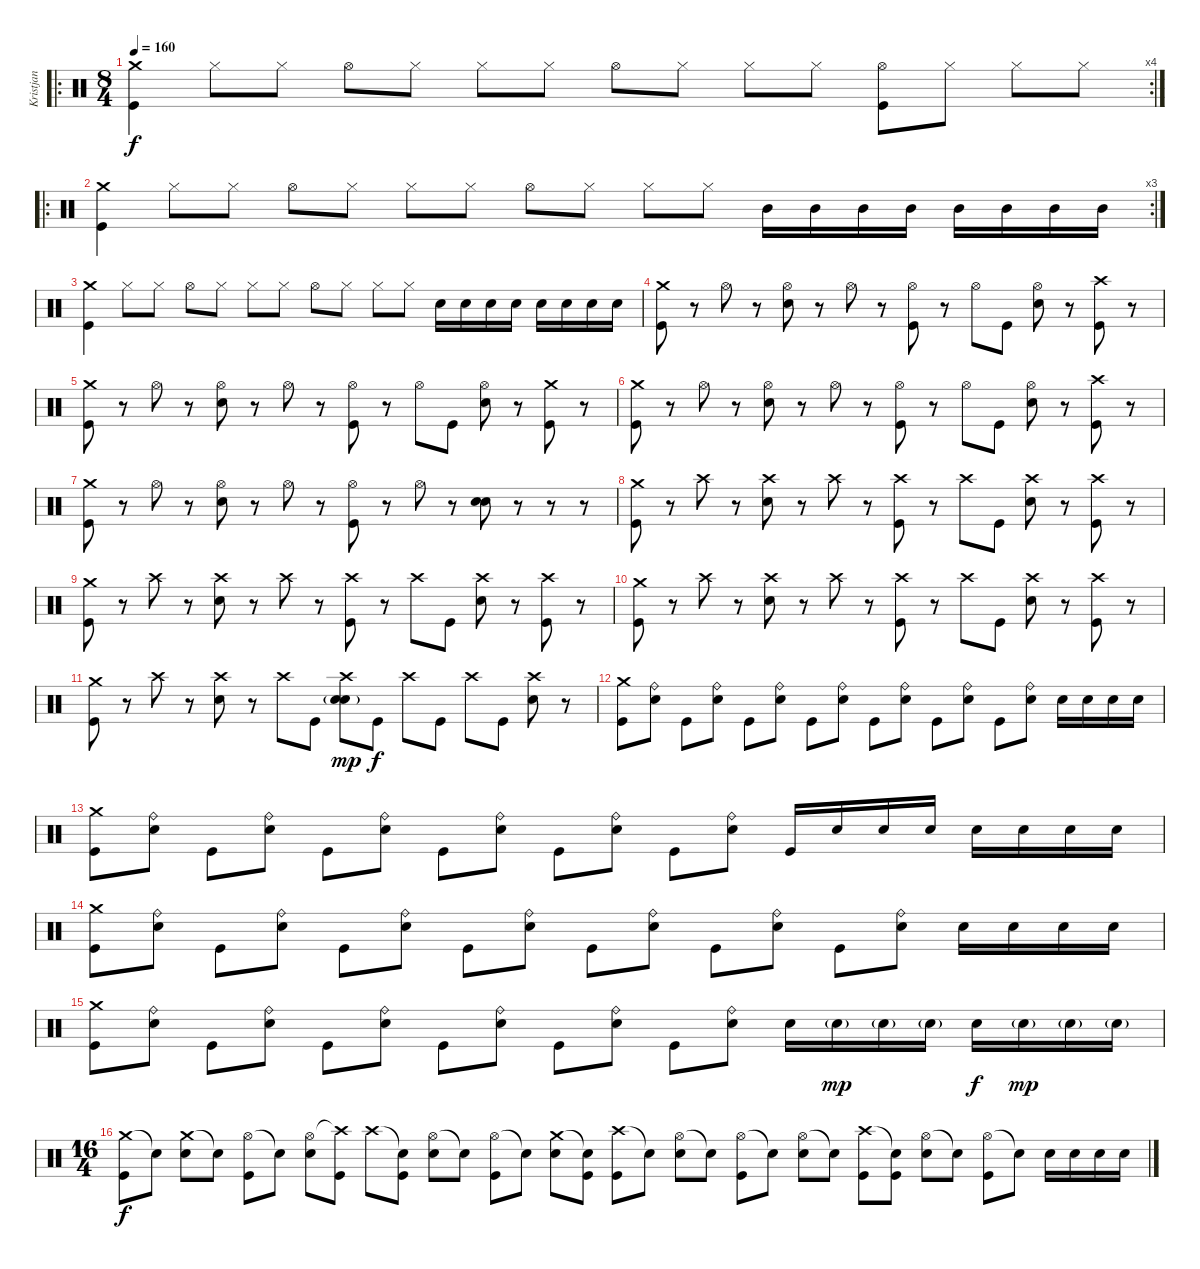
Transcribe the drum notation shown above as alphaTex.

\track ("Kristjan" "Kristjan") {instrument percussion}
\staff {score}
\articulation defaults
\ro
\rc 4
\ts (8 4)
\tempo 160
\clef neutral
\ks c
("Crash medium (hit)" "Kick (hit)").4{dy f} "Hi-Hat (closed)".8 "Hi-Hat (closed)".8 "Hi-Hat (open)".8 "Hi-Hat (closed)".8 "Hi-Hat (closed)".8 "Hi-Hat (closed)".8 "Hi-Hat (open)".8 "Hi-Hat (closed)".8 "Hi-Hat (closed)".8 "Hi-Hat (closed)".8 ("Hi-Hat (open)" "Kick (hit)").8 "Hi-Hat (closed)".8 "Hi-Hat (closed)".8 "Hi-Hat (closed)".8 |
\ro
\rc 3
("Crash medium (hit)" "Kick (hit)").4 "Hi-Hat (closed)".8 "Hi-Hat (closed)".8 "Hi-Hat (open)".8 "Hi-Hat (closed)".8 "Hi-Hat (closed)".8 "Hi-Hat (closed)".8 "Hi-Hat (open)".8 "Hi-Hat (closed)".8 "Hi-Hat (closed)".8 "Hi-Hat (closed)".8 "Mid Tom (hit)".16 "Mid Tom (hit)".16 "Mid Tom (hit)".16 "Mid Tom (hit)".16 "Mid Tom (hit)".16 "Mid Tom (hit)".16 "Mid Tom (hit)".16 "Mid Tom (hit)".16 |
("Crash medium (hit)" "Kick (hit)").4 "Hi-Hat (closed)".8 "Hi-Hat (closed)".8 "Hi-Hat (open)".8 "Hi-Hat (closed)".8 "Hi-Hat (closed)".8 "Hi-Hat (closed)".8 "Hi-Hat (open)".8 "Hi-Hat (closed)".8 "Hi-Hat (closed)".8 "Hi-Hat (closed)".8 "Electric Snare (hit)".16 "Electric Snare (hit)".16 "Electric Snare (hit)".16 "Electric Snare (hit)".16 "Electric Snare (hit)".16 "Electric Snare (hit)".16 "Electric Snare (hit)".16 "Electric Snare (hit)".16 |
("Crash medium (hit)" "Kick (hit)").8 r.8 "Hi-Hat (open)".8 r.8 ("Hi-Hat (open)" "Electric Snare (hit)").8 r.8 "Hi-Hat (open)".8 r.8 ("Hi-Hat (open)" "Kick (hit)").8 r.8 "Hi-Hat (open)".8 "Kick (hit)".8 ("Hi-Hat (open)" "Electric Snare (hit)").8 r.8 ("Crash high (hit)" "Kick (hit)").8 r.8 |
("Crash medium (hit)" "Kick (hit)").8 r.8 "Hi-Hat (open)".8 r.8 ("Hi-Hat (open)" "Electric Snare (hit)").8 r.8 "Hi-Hat (open)".8 r.8 ("Hi-Hat (open)" "Kick (hit)").8 r.8 "Hi-Hat (open)".8 "Kick (hit)".8 ("Hi-Hat (open)" "Electric Snare (hit)").8 r.8 ("Crash medium (hit)" "Kick (hit)").8 r.8 |
("Crash medium (hit)" "Kick (hit)").8 r.8 "Hi-Hat (open)".8 r.8 ("Hi-Hat (open)" "Electric Snare (hit)").8 r.8 "Hi-Hat (open)".8 r.8 ("Hi-Hat (open)" "Kick (hit)").8 r.8 "Hi-Hat (open)".8 "Kick (hit)".8 ("Hi-Hat (open)" "Electric Snare (hit)").8 r.8 ("Crash high (hit)" "Kick (hit)").8 r.8 |
("Crash medium (hit)" "Kick (hit)").8 r.8 "Hi-Hat (open)".8 r.8 ("Hi-Hat (open)" "Electric Snare (hit)").8 r.8 "Hi-Hat (open)".8 r.8 ("Hi-Hat (open)" "Kick (hit)").8 r.8 "Hi-Hat (open)".8 r.8 ("Electric Snare (hit)" "Electric Snare (hit)").8 r.8 r.8 r.8 |
("Crash medium (hit)" "Kick (hit)").8 r.8 "Crash high (hit)".8 r.8 ("Crash high (hit)" "Electric Snare (hit)").8 r.8 "Crash high (hit)".8 r.8 ("Crash high (hit)" "Kick (hit)").8 r.8 "Crash high (hit)".8 "Kick (hit)".8 ("Crash high (hit)" "Electric Snare (hit)").8 r.8 ("Crash high (hit)" "Kick (hit)").8 r.8 |
("Crash medium (hit)" "Kick (hit)").8 r.8 "Crash high (hit)".8 r.8 ("Crash high (hit)" "Electric Snare (hit)").8 r.8 "Crash high (hit)".8 r.8 ("Crash high (hit)" "Kick (hit)").8 r.8 "Crash high (hit)".8 "Kick (hit)".8 ("Crash high (hit)" "Electric Snare (hit)").8 r.8 ("Crash high (hit)" "Kick (hit)").8 r.8 |
("Crash medium (hit)" "Kick (hit)").8 r.8 "Crash high (hit)".8 r.8 ("Crash high (hit)" "Electric Snare (hit)").8 r.8 "Crash high (hit)".8 r.8 ("Crash high (hit)" "Kick (hit)").8 r.8 "Crash high (hit)".8 "Kick (hit)".8 ("Crash high (hit)" "Electric Snare (hit)").8 r.8 ("Crash high (hit)" "Kick (hit)").8 r.8 |
("Crash medium (hit)" "Kick (hit)").8 r.8 "Crash high (hit)".8 r.8 ("Crash high (hit)" "Electric Snare (hit)").8 r.8 "Crash high (hit)".8 "Kick (hit)".8 ("Crash high (hit)" "Electric Snare (hit)"{g} "Electric Snare (hit)").8{dy mp} "Kick (hit)".8{dy f} "Crash high (hit)".8 "Kick (hit)".8 "Crash high (hit)".8 "Kick (hit)".8 ("Crash high (hit)" "Electric Snare (hit)").8 r.8 |
("Crash medium (hit)" "Kick (hit)").8 ("Ride (bell)" "Electric Snare (hit)").8 "Kick (hit)".8 ("Ride (bell)" "Electric Snare (hit)").8 "Kick (hit)".8 ("Ride (bell)" "Electric Snare (hit)").8 "Kick (hit)".8 ("Ride (bell)" "Electric Snare (hit)").8 "Kick (hit)".8 ("Ride (bell)" "Electric Snare (hit)").8 "Kick (hit)".8 ("Ride (bell)" "Electric Snare (hit)").8 "Kick (hit)".8 ("Ride (bell)" "Electric Snare (hit)").8 "Electric Snare (hit)".16 "Electric Snare (hit)".16 "Electric Snare (hit)".16 "Electric Snare (hit)".16 |
("Crash medium (hit)" "Kick (hit)").8 ("Ride (bell)" "Electric Snare (hit)").8 "Kick (hit)".8 ("Ride (bell)" "Electric Snare (hit)").8 "Kick (hit)".8 ("Ride (bell)" "Electric Snare (hit)").8 "Kick (hit)".8 ("Ride (bell)" "Electric Snare (hit)").8 "Kick (hit)".8 ("Ride (bell)" "Electric Snare (hit)").8 "Kick (hit)".8 ("Ride (bell)" "Electric Snare (hit)").8 "Kick (hit)".16 "Electric Snare (hit)".16 "Electric Snare (hit)".16 "Electric Snare (hit)".16 "Electric Snare (hit)".16 "Electric Snare (hit)".16 "Electric Snare (hit)".16 "Electric Snare (hit)".16 |
("Crash medium (hit)" "Kick (hit)").8 ("Ride (bell)" "Electric Snare (hit)").8 "Kick (hit)".8 ("Ride (bell)" "Electric Snare (hit)").8 "Kick (hit)".8 ("Ride (bell)" "Electric Snare (hit)").8 "Kick (hit)".8 ("Ride (bell)" "Electric Snare (hit)").8 "Kick (hit)".8 ("Ride (bell)" "Electric Snare (hit)").8 "Kick (hit)".8 ("Ride (bell)" "Electric Snare (hit)").8 "Kick (hit)".8 ("Ride (bell)" "Electric Snare (hit)").8 "Electric Snare (hit)".16 "Electric Snare (hit)".16 "Electric Snare (hit)".16 "Electric Snare (hit)".16 |
("Crash medium (hit)" "Kick (hit)").8 ("Ride (bell)" "Electric Snare (hit)").8 "Kick (hit)".8 ("Ride (bell)" "Electric Snare (hit)").8 "Kick (hit)".8 ("Ride (bell)" "Electric Snare (hit)").8 "Kick (hit)".8 ("Ride (bell)" "Electric Snare (hit)").8 "Kick (hit)".8 ("Ride (bell)" "Electric Snare (hit)").8 "Kick (hit)".8 ("Ride (bell)" "Electric Snare (hit)").8 "Electric Snare (hit)".16 "Electric Snare (hit)"{g}.16{dy mp} "Electric Snare (hit)"{g}.16 "Electric Snare (hit)"{g}.16 "Electric Snare (hit)".16{dy f} "Electric Snare (hit)"{g}.16{dy mp} "Electric Snare (hit)"{g}.16 "Electric Snare (hit)"{g}.16 |
\ts (16 4)
("Crash medium (hit)" "Kick (hit)").8{dy f} "Snare (hit)"{t}.8 ("Crash medium (hit)" "Electric Snare (hit)").8 "Snare (hit)"{t}.8 ("Hi-Hat (open)" "Kick (hit)").8 "Snare (hit)"{t}.8 ("Hi-Hat (open)" "Electric Snare (hit)").8 ("Crash high (hit)"{t} "Kick (hit)").8 "Crash high (hit)".8 ("Snare (hit)"{t} "Kick (hit)").8 ("Hi-Hat (open)" "Electric Snare (hit)").8 "Snare (hit)"{t}.8 ("Hi-Hat (open)" "Kick (hit)").8 "Snare (hit)"{t}.8 ("Crash medium (hit)" "Electric Snare (hit)").8 ("Snare (hit)"{t} "Kick (hit)").8 ("Crash high (hit)" "Kick (hit)").8 "Snare (hit)"{t}.8 ("Hi-Hat (open)" "Electric Snare (hit)").8 "Snare (hit)"{t}.8 ("Hi-Hat (open)" "Kick (hit)").8 "Snare (hit)"{t}.8 ("Hi-Hat (open)" "Electric Snare (hit)").8 "Snare (hit)"{t}.8 ("Crash high (hit)" "Kick (hit)").8 ("Snare (hit)"{t} "Kick (hit)").8 ("Hi-Hat (open)" "Electric Snare (hit)").8 "Snare (hit)"{t}.8 ("Hi-Hat (open)" "Kick (hit)").8 "Snare (hit)"{t}.8 "Electric Snare (hit)".16 "Electric Snare (hit)".16 "Electric Snare (hit)".16 "Electric Snare (hit)".16
